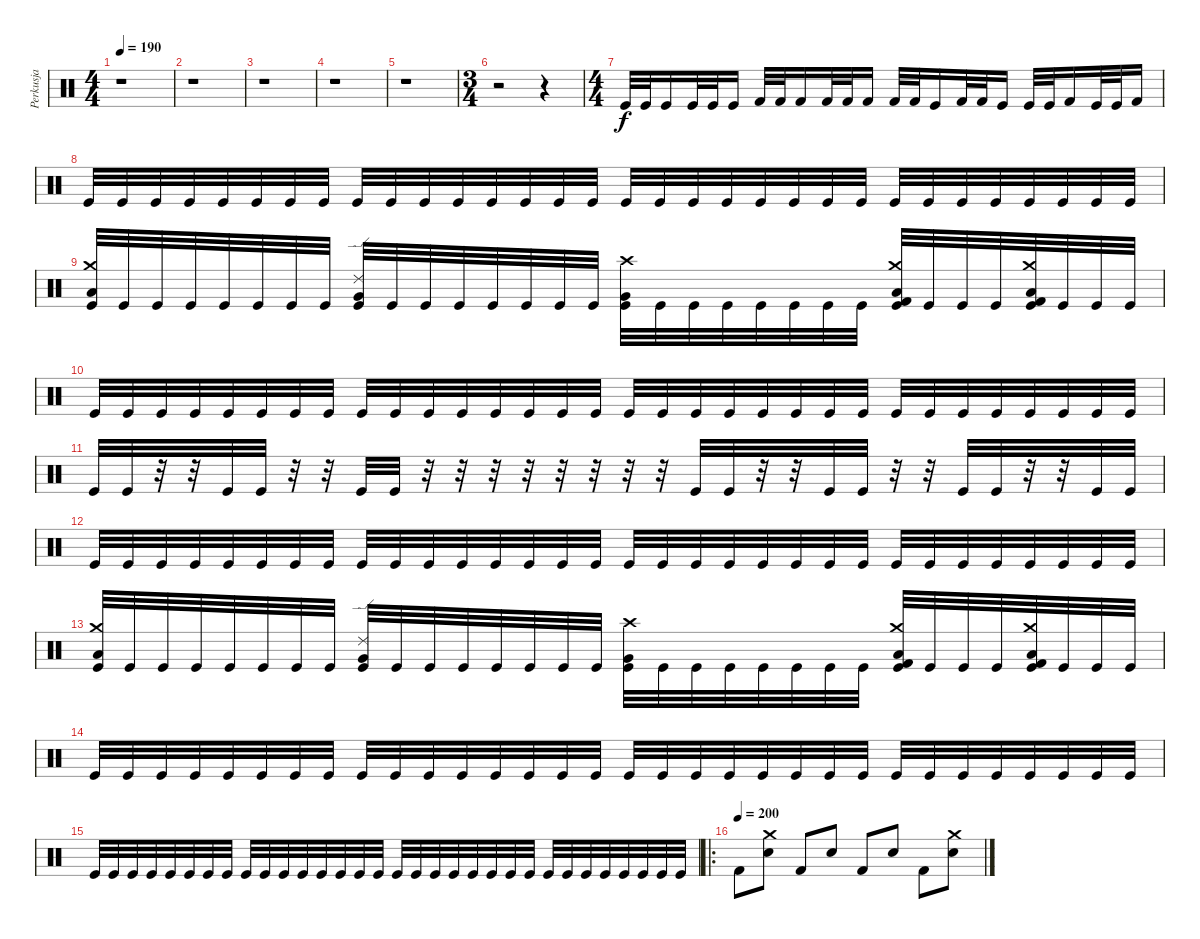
\track ("Perkusja" "Perkusja") {instrument percussion}
\staff {score}
\articulation defaults
\ts (4 4)
\tempo 190
\clef neutral
\ks c
r.1{dy f} |
r.1 |
r.1 |
r.1 |
r.1 |
\ts (3 4)
r.2 r.4 |
\ts (4 4)
"Kick (hit)".32 "Kick (hit)".32 "Kick (hit)".16 "Kick (hit)".32 "Kick (hit)".32 "Kick (hit)".16 "Kick (hit) 2".32 "Kick (hit) 2".32 "Kick (hit) 2".16 "Kick (hit) 2".32 "Kick (hit) 2".32 "Kick (hit) 2".16 "Kick (hit) 2".32 "Kick (hit) 2".32 "Kick (hit)".16 "Kick (hit) 2".32 "Kick (hit) 2".32 "Kick (hit)".16 "Kick (hit)".32 "Kick (hit)".32 "Kick (hit) 2".16 "Kick (hit)".32 "Kick (hit)".32 "Kick (hit) 2".16 |
"Kick (hit)".32 "Kick (hit)".32 "Kick (hit)".32 "Kick (hit)".32 "Kick (hit)".32 "Kick (hit)".32 "Kick (hit)".32 "Kick (hit)".32 "Kick (hit)".32 "Kick (hit)".32 "Kick (hit)".32 "Kick (hit)".32 "Kick (hit)".32 "Kick (hit)".32 "Kick (hit)".32 "Kick (hit)".32 "Kick (hit)".32 "Kick (hit)".32 "Kick (hit)".32 "Kick (hit)".32 "Kick (hit)".32 "Kick (hit)".32 "Kick (hit)".32 "Kick (hit)".32 "Kick (hit)".32 "Kick (hit)".32 "Kick (hit)".32 "Kick (hit)".32 "Kick (hit)".32 "Kick (hit)".32 "Kick (hit)".32 "Kick (hit)".32 |
("Crash medium (hit)" "Low Tom (hit)" "Kick (hit)").32 "Kick (hit)".32 "Kick (hit)".32 "Kick (hit)".32 "Kick (hit)".32 "Kick (hit)".32 "Kick (hit)".32 "Kick (hit)".32 ("Ride (edge) 2" "Very Low Tom (hit)" "Kick (hit)").32 "Kick (hit)".32 "Kick (hit)".32 "Kick (hit)".32 "Kick (hit)".32 "Kick (hit)".32 "Kick (hit)".32 "Kick (hit)".32 ("Very Low Tom (hit)" "Crash high (hit)" "Kick (hit)").32 "Kick (hit)".32 "Kick (hit)".32 "Kick (hit)".32 "Kick (hit)".32 "Kick (hit)".32 "Kick (hit)".32 "Kick (hit)".32 ("Crash medium (hit)" "Low Tom (hit)" "Kick (hit) 2" "Kick (hit)").32 "Kick (hit)".32 "Kick (hit)".32 "Kick (hit)".32 ("Crash medium (hit)" "Low Tom (hit)" "Kick (hit) 2" "Kick (hit)").32 "Kick (hit)".32 "Kick (hit)".32 "Kick (hit)".32 |
"Kick (hit)".32 "Kick (hit)".32 "Kick (hit)".32 "Kick (hit)".32 "Kick (hit)".32 "Kick (hit)".32 "Kick (hit)".32 "Kick (hit)".32 "Kick (hit)".32 "Kick (hit)".32 "Kick (hit)".32 "Kick (hit)".32 "Kick (hit)".32 "Kick (hit)".32 "Kick (hit)".32 "Kick (hit)".32 "Kick (hit)".32 "Kick (hit)".32 "Kick (hit)".32 "Kick (hit)".32 "Kick (hit)".32 "Kick (hit)".32 "Kick (hit)".32 "Kick (hit)".32 "Kick (hit)".32 "Kick (hit)".32 "Kick (hit)".32 "Kick (hit)".32 "Kick (hit)".32 "Kick (hit)".32 "Kick (hit)".32 "Kick (hit)".32 |
"Kick (hit)".32 "Kick (hit)".32 r.32 r.32 "Kick (hit)".32 "Kick (hit)".32 r.32 r.32 "Kick (hit)".32 "Kick (hit)".32 r.32 r.32 r.32 r.32 r.32 r.32 r.32 r.32 "Kick (hit)".32 "Kick (hit)".32 r.32 r.32 "Kick (hit)".32 "Kick (hit)".32 r.32 r.32 "Kick (hit)".32 "Kick (hit)".32 r.32 r.32 "Kick (hit)".32 "Kick (hit)".32 |
"Kick (hit)".32 "Kick (hit)".32 "Kick (hit)".32 "Kick (hit)".32 "Kick (hit)".32 "Kick (hit)".32 "Kick (hit)".32 "Kick (hit)".32 "Kick (hit)".32 "Kick (hit)".32 "Kick (hit)".32 "Kick (hit)".32 "Kick (hit)".32 "Kick (hit)".32 "Kick (hit)".32 "Kick (hit)".32 "Kick (hit)".32 "Kick (hit)".32 "Kick (hit)".32 "Kick (hit)".32 "Kick (hit)".32 "Kick (hit)".32 "Kick (hit)".32 "Kick (hit)".32 "Kick (hit)".32 "Kick (hit)".32 "Kick (hit)".32 "Kick (hit)".32 "Kick (hit)".32 "Kick (hit)".32 "Kick (hit)".32 "Kick (hit)".32 |
("Crash medium (hit)" "Low Tom (hit)" "Kick (hit)").32 "Kick (hit)".32 "Kick (hit)".32 "Kick (hit)".32 "Kick (hit)".32 "Kick (hit)".32 "Kick (hit)".32 "Kick (hit)".32 ("Ride (edge) 2" "Very Low Tom (hit)" "Kick (hit)").32 "Kick (hit)".32 "Kick (hit)".32 "Kick (hit)".32 "Kick (hit)".32 "Kick (hit)".32 "Kick (hit)".32 "Kick (hit)".32 ("Very Low Tom (hit)" "Crash high (hit)" "Kick (hit)").32 "Kick (hit)".32 "Kick (hit)".32 "Kick (hit)".32 "Kick (hit)".32 "Kick (hit)".32 "Kick (hit)".32 "Kick (hit)".32 ("Crash medium (hit)" "Low Tom (hit)" "Kick (hit) 2" "Kick (hit)").32 "Kick (hit)".32 "Kick (hit)".32 "Kick (hit)".32 ("Crash medium (hit)" "Low Tom (hit)" "Kick (hit) 2" "Kick (hit)").32 "Kick (hit)".32 "Kick (hit)".32 "Kick (hit)".32 |
"Kick (hit)".32 "Kick (hit)".32 "Kick (hit)".32 "Kick (hit)".32 "Kick (hit)".32 "Kick (hit)".32 "Kick (hit)".32 "Kick (hit)".32 "Kick (hit)".32 "Kick (hit)".32 "Kick (hit)".32 "Kick (hit)".32 "Kick (hit)".32 "Kick (hit)".32 "Kick (hit)".32 "Kick (hit)".32 "Kick (hit)".32 "Kick (hit)".32 "Kick (hit)".32 "Kick (hit)".32 "Kick (hit)".32 "Kick (hit)".32 "Kick (hit)".32 "Kick (hit)".32 "Kick (hit)".32 "Kick (hit)".32 "Kick (hit)".32 "Kick (hit)".32 "Kick (hit)".32 "Kick (hit)".32 "Kick (hit)".32 "Kick (hit)".32 |
"Kick (hit)".32 "Kick (hit)".32 "Kick (hit)".32 "Kick (hit)".32 "Kick (hit)".32 "Kick (hit)".32 "Kick (hit)".32 "Kick (hit)".32 "Kick (hit)".32 "Kick (hit)".32 "Kick (hit)".32 "Kick (hit)".32 "Kick (hit)".32 "Kick (hit)".32 "Kick (hit)".32 "Kick (hit)".32 "Kick (hit)".32 "Kick (hit)".32 "Kick (hit)".32 "Kick (hit)".32 "Kick (hit)".32 "Kick (hit)".32 "Kick (hit)".32 "Kick (hit)".32 "Kick (hit)".32 "Kick (hit)".32 "Kick (hit)".32 "Kick (hit)".32 "Kick (hit)".32 "Kick (hit)".32 "Kick (hit)".32 "Kick (hit)".32 |
\ro
\tempo (200)
"Kick (hit) 2".8 ("Crash medium (hit)" "Electric Snare (hit)").8 "Kick (hit) 2".8 "Electric Snare (hit)".8 "Kick (hit) 2".8 "Electric Snare (hit)".8 "Kick (hit) 2".8 ("Crash medium (hit)" "Electric Snare (hit)").8
